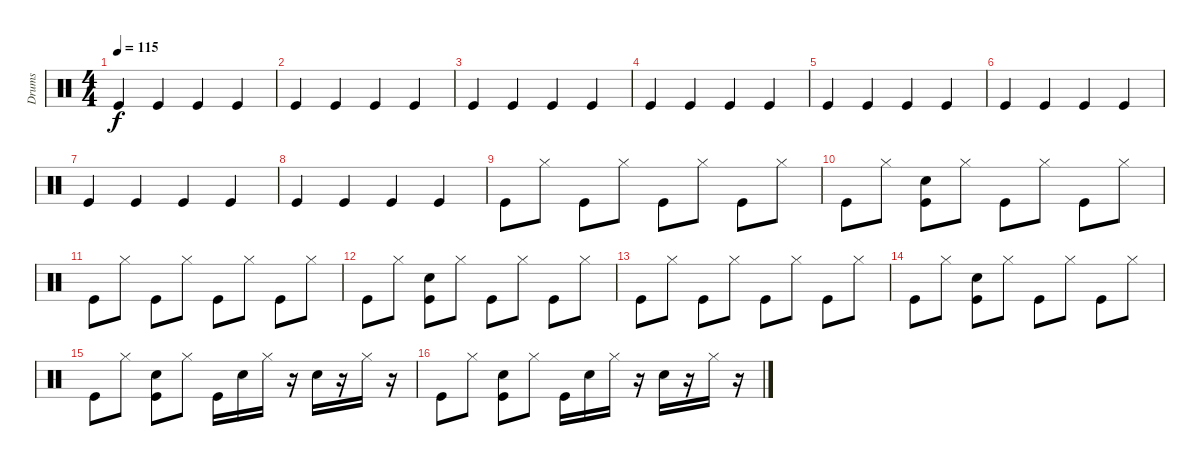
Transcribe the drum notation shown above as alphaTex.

\track ("Drums" "Drums") {instrument percussion}
\staff {score}
\articulation defaults
\ts (4 4)
\tempo 115
\clef neutral
\ks c "Kick (hit)".4{dy f} "Kick (hit)".4 "Kick (hit)".4 "Kick (hit)".4
|
"Kick (hit)".4 "Kick (hit)".4 "Kick (hit)".4 "Kick (hit)".4 |
"Kick (hit)".4 "Kick (hit)".4 "Kick (hit)".4 "Kick (hit)".4 |
"Kick (hit)".4 "Kick (hit)".4 "Kick (hit)".4 "Kick (hit)".4 |
"Kick (hit)".4 "Kick (hit)".4 "Kick (hit)".4 "Kick (hit)".4 |
"Kick (hit)".4 "Kick (hit)".4 "Kick (hit)".4 "Kick (hit)".4 |
"Kick (hit)".4 "Kick (hit)".4 "Kick (hit)".4 "Kick (hit)".4 |
"Kick (hit)".4 "Kick (hit)".4 "Kick (hit)".4 "Kick (hit)".4 |
"Kick (hit)".8 "Hi-Hat (closed)".8 "Kick (hit)".8 "Hi-Hat (closed)".8 "Kick (hit)".8 "Hi-Hat (closed)".8 "Kick (hit)".8 "Hi-Hat (closed)".8 |
"Kick (hit)".8 "Hi-Hat (closed)".8 ("Electric Snare (hit)" "Kick (hit)").8 "Hi-Hat (closed)".8 "Kick (hit)".8 "Hi-Hat (closed)".8 "Kick (hit)".8 "Hi-Hat (closed)".8 |
"Kick (hit)".8 "Hi-Hat (closed)".8 "Kick (hit)".8 "Hi-Hat (closed)".8 "Kick (hit)".8 "Hi-Hat (closed)".8 "Kick (hit)".8 "Hi-Hat (closed)".8 |
"Kick (hit)".8 "Hi-Hat (closed)".8 ("Electric Snare (hit)" "Kick (hit)").8 "Hi-Hat (closed)".8 "Kick (hit)".8 "Hi-Hat (closed)".8 "Kick (hit)".8 "Hi-Hat (closed)".8 |
"Kick (hit)".8 "Hi-Hat (closed)".8 "Kick (hit)".8 "Hi-Hat (closed)".8 "Kick (hit)".8 "Hi-Hat (closed)".8 "Kick (hit)".8 "Hi-Hat (closed)".8 |
"Kick (hit)".8 "Hi-Hat (closed)".8 ("Electric Snare (hit)" "Kick (hit)").8 "Hi-Hat (closed)".8 "Kick (hit)".8 "Hi-Hat (closed)".8 "Kick (hit)".8 "Hi-Hat (closed)".8 |
"Kick (hit)".8 "Hi-Hat (closed)".8 ("Electric Snare (hit)" "Kick (hit)").8 "Hi-Hat (closed)".8 "Kick (hit)".16 "Electric Snare (hit)".16 "Hi-Hat (closed)".16 r.16 "Electric Snare (hit)".16 r.16 "Hi-Hat (closed)".16 r.16 |
"Kick (hit)".8 "Hi-Hat (closed)".8 ("Electric Snare (hit)" "Kick (hit)").8 "Hi-Hat (closed)".8 "Kick (hit)".16 "Electric Snare (hit)".16 "Hi-Hat (closed)".16 r.16 "Electric Snare (hit)".16 r.16 "Hi-Hat (closed)".16 r.16
